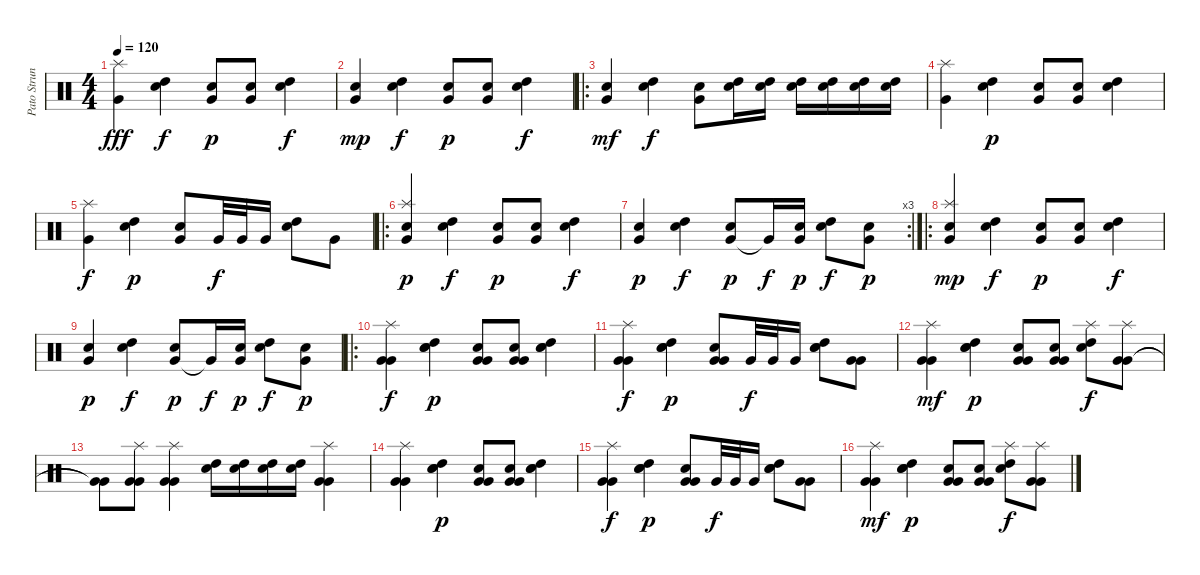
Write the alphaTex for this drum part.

\track ("Pato Strunz" "Pato Strun") {instrument percussion}
\staff {score}
\articulation defaults
\ts (4 4)
\tempo 120
\clef neutral
\ks c
("Very Low Tom (hit)" "Splash (hit)").4{dy fff} ("High Tom (hit)" "Snare (hit) 2").4{dy f} ("Very Low Tom (hit)" "Snare (hit) 2").8{dy p} ("Very Low Tom (hit)" "Snare (hit) 2").8 ("High Tom (hit)" "Snare (hit) 2").4{dy f} |
("Very Low Tom (hit)" "Snare (hit) 2").4{dy mp} ("High Tom (hit)" "Snare (hit) 2").4{dy f} ("Very Low Tom (hit)" "Snare (hit) 2").8{dy p} ("Very Low Tom (hit)" "Snare (hit) 2").8 ("High Tom (hit)" "Snare (hit) 2").4{dy f} |
\ro
("Very Low Tom (hit)" "Snare (hit) 2").4{dy mf} ("High Tom (hit)" "Snare (hit) 2").4{dy f} ("Very Low Tom (hit)" "Snare (hit) 2").8 ("High Tom (hit)" "Snare (hit) 2").16 ("High Tom (hit)" "Snare (hit) 2").16 ("High Tom (hit)" "Snare (hit) 2").16 ("High Tom (hit)" "Snare (hit) 2").16 ("High Tom (hit)" "Snare (hit) 2").16 ("High Tom (hit)" "Snare (hit) 2").16 |
("Very Low Tom (hit)" "Splash (hit)").4 ("High Tom (hit)" "Snare (hit) 2").4{dy p} ("Very Low Tom (hit)" "Snare (hit) 2").8 ("Very Low Tom (hit)" "Snare (hit) 2").8 ("High Tom (hit)" "Snare (hit) 2").4 |
("Very Low Tom (hit)" "Splash (hit)").4{dy f} ("High Tom (hit)" "Snare (hit) 2").4{dy p} ("Very Low Tom (hit)" "Snare (hit) 2").8 "Very Low Tom (hit)".32{dy f} "Very Low Tom (hit)".32 "Very Low Tom (hit)".16 ("High Tom (hit)" "Snare (hit) 2").8 "Very Low Tom (hit)".8 |
\ro
("Very Low Tom (hit)" "Snare (hit) 2" "Splash (hit)").4{dy p} ("High Tom (hit)" "Snare (hit) 2").4{dy f} ("Very Low Tom (hit)" "Snare (hit) 2").8{dy p} ("Very Low Tom (hit)" "Snare (hit) 2").8 ("High Tom (hit)" "Snare (hit) 2").4{dy f} |
\rc 3
("Very Low Tom (hit)" "Snare (hit) 2").4{dy p} ("High Tom (hit)" "Snare (hit) 2").4{dy f} ("Very Low Tom (hit)" "Snare (hit) 2").8{dy p} "Very Low Tom (hit)"{t}.16{dy f} ("Very Low Tom (hit)" "Snare (hit) 2").16{dy p} ("High Tom (hit)" "Snare (hit) 2").8{dy f} ("Very Low Tom (hit)" "Snare (hit) 2").8{dy p} |
\ro
("Very Low Tom (hit)" "Snare (hit) 2" "Splash (hit)").4{dy mp} ("High Tom (hit)" "Snare (hit) 2").4{dy f} ("Very Low Tom (hit)" "Snare (hit) 2").8{dy p} ("Very Low Tom (hit)" "Snare (hit) 2").8 ("High Tom (hit)" "Snare (hit) 2").4{dy f} |
("Very Low Tom (hit)" "Snare (hit) 2").4{dy p} ("High Tom (hit)" "Snare (hit) 2").4{dy f} ("Very Low Tom (hit)" "Snare (hit) 2").8{dy p} "Very Low Tom (hit)"{t}.16{dy f} ("Very Low Tom (hit)" "Snare (hit) 2").16{dy p} ("High Tom (hit)" "Snare (hit) 2").8{dy f} ("Very Low Tom (hit)" "Snare (hit) 2").8{dy p} |
\ro
("Very Low Tom (hit)" "Very Low Tom (hit)" "Splash (hit)").4{dy f volume 12} ("High Tom (hit)" "Snare (hit) 2" "Snare (hit) 2").4{dy p} ("Very Low Tom (hit)" "Very Low Tom (hit)" "Snare (hit) 2").8 ("Very Low Tom (hit)" "Very Low Tom (hit)" "Snare (hit) 2").8 ("High Tom (hit)" "Snare (hit) 2" "Snare (hit) 2").4 |
("Very Low Tom (hit)" "Very Low Tom (hit)" "Splash (hit)").4{dy f} ("High Tom (hit)" "Snare (hit) 2" "Snare (hit) 2").4{dy p} ("Very Low Tom (hit)" "Very Low Tom (hit)" "Snare (hit) 2").8 "Very Low Tom (hit)".32{dy f} "Very Low Tom (hit)".32 "Very Low Tom (hit)".16 ("High Tom (hit)" "Snare (hit) 2" "Snare (hit) 2").8 ("Very Low Tom (hit)" "Very Low Tom (hit)").8 |
("Very Low Tom (hit)" "Very Low Tom (hit)" "Splash (hit)").4{dy mf volume 10} ("High Tom (hit)" "Snare (hit) 2" "Snare (hit) 2").4{dy p} ("Very Low Tom (hit)" "Very Low Tom (hit)" "Snare (hit) 2").8 ("Very Low Tom (hit)" "Very Low Tom (hit)" "Snare (hit) 2").8 ("High Tom (hit)" "Snare (hit) 2" "Splash (hit)").8{dy f} ("Very Low Tom (hit)" "Very Low Tom (hit)" "Splash (hit)").8 |
("Very Low Tom (hit)"{t} "Very Low Tom (hit)"{t}).8 ("Very Low Tom (hit)" "Very Low Tom (hit)" "Splash (hit)").8 ("Very Low Tom (hit)" "Very Low Tom (hit)" "Splash (hit)").4 ("High Tom (hit)" "Snare (hit) 2").16 ("High Tom (hit)" "Snare (hit) 2").16 ("High Tom (hit)" "Snare (hit) 2").16 ("High Tom (hit)" "Snare (hit) 2").16 ("Very Low Tom (hit)" "Very Low Tom (hit)" "Splash (hit)").4 |
("Very Low Tom (hit)" "Very Low Tom (hit)" "Splash (hit)").4{volume 9} ("High Tom (hit)" "Snare (hit) 2" "Snare (hit) 2").4{dy p} ("Very Low Tom (hit)" "Very Low Tom (hit)" "Snare (hit) 2").8 ("Very Low Tom (hit)" "Very Low Tom (hit)" "Snare (hit) 2").8 ("High Tom (hit)" "Snare (hit) 2" "Snare (hit) 2").4 |
("Very Low Tom (hit)" "Very Low Tom (hit)" "Splash (hit)").4{dy f} ("High Tom (hit)" "Snare (hit) 2" "Snare (hit) 2").4{dy p} ("Very Low Tom (hit)" "Very Low Tom (hit)" "Snare (hit) 2").8 "Very Low Tom (hit)".32{dy f} "Very Low Tom (hit)".32 "Very Low Tom (hit)".16 ("High Tom (hit)" "Snare (hit) 2" "Snare (hit) 2").8 ("Very Low Tom (hit)" "Very Low Tom (hit)").8 |
("Very Low Tom (hit)" "Very Low Tom (hit)" "Splash (hit)").4{dy mf volume 6} ("High Tom (hit)" "Snare (hit) 2" "Snare (hit) 2").4{dy p} ("Very Low Tom (hit)" "Very Low Tom (hit)" "Snare (hit) 2").8 ("Very Low Tom (hit)" "Very Low Tom (hit)" "Snare (hit) 2").8 ("High Tom (hit)" "Snare (hit) 2" "Splash (hit)").8{dy f} ("Very Low Tom (hit)" "Very Low Tom (hit)" "Splash (hit)").8
